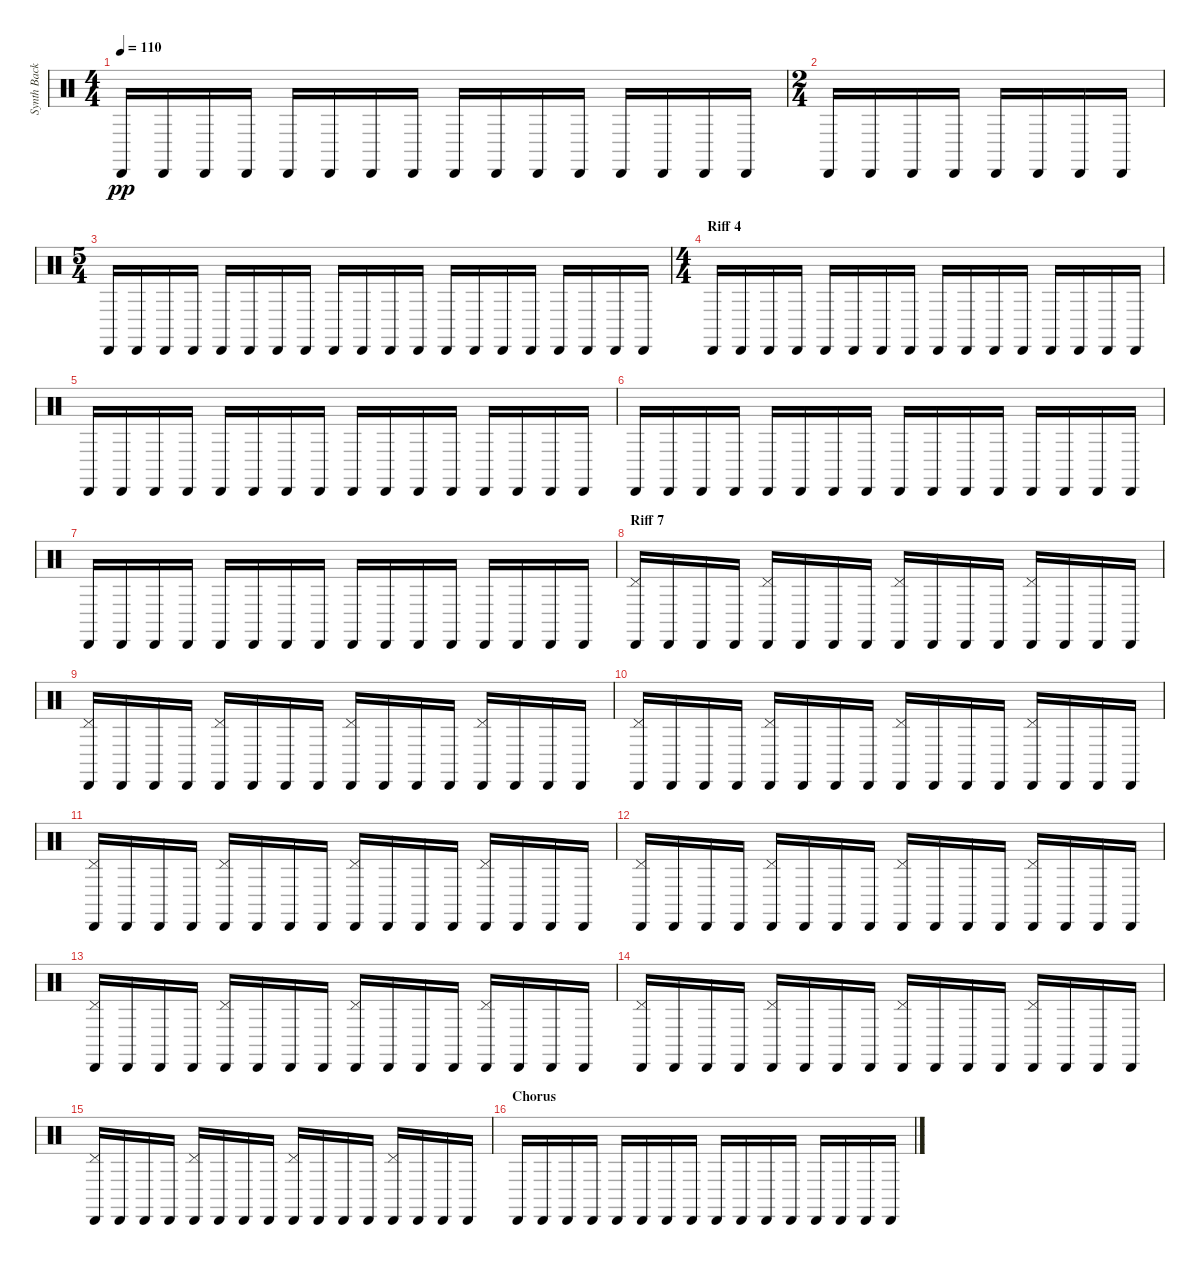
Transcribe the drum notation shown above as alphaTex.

\track ("Synth Background Rhythm" "Synth Back") {instrument percussion}
\staff {score}
\articulation defaults
\ts (4 4)
\tempo 110
\clef neutral
\ks c "Cabasa (hit)".16{dy pp} "Cabasa (hit)".16 "Cabasa (hit)".16 "Cabasa (hit)".16 "Cabasa (hit)".16 "Cabasa (hit)".16 "Cabasa (hit)".16 "Cabasa (hit)".16 "Cabasa (hit)".16 "Cabasa (hit)".16 "Cabasa (hit)".16 "Cabasa (hit)".16 "Cabasa (hit)".16 "Cabasa (hit)".16 "Cabasa (hit)".16 "Cabasa (hit)".16
|
\ts (2 4)
"Cabasa (hit)".16 "Cabasa (hit)".16 "Cabasa (hit)".16 "Cabasa (hit)".16 "Cabasa (hit)".16 "Cabasa (hit)".16 "Cabasa (hit)".16 "Cabasa (hit)".16 |
\ts (5 4)
"Cabasa (hit)".16 "Cabasa (hit)".16 "Cabasa (hit)".16 "Cabasa (hit)".16 "Cabasa (hit)".16 "Cabasa (hit)".16 "Cabasa (hit)".16 "Cabasa (hit)".16 "Cabasa (hit)".16 "Cabasa (hit)".16 "Cabasa (hit)".16 "Cabasa (hit)".16 "Cabasa (hit)".16 "Cabasa (hit)".16 "Cabasa (hit)".16 "Cabasa (hit)".16 "Cabasa (hit)".16 "Cabasa (hit)".16 "Cabasa (hit)".16 "Cabasa (hit)".16 |
\ts (4 4)
\section ("" "Riff 4")
"Cabasa (hit)".16 "Cabasa (hit)".16 "Cabasa (hit)".16 "Cabasa (hit)".16 "Cabasa (hit)".16 "Cabasa (hit)".16 "Cabasa (hit)".16 "Cabasa (hit)".16 "Cabasa (hit)".16 "Cabasa (hit)".16 "Cabasa (hit)".16 "Cabasa (hit)".16 "Cabasa (hit)".16 "Cabasa (hit)".16 "Cabasa (hit)".16 "Cabasa (hit)".16 |
"Cabasa (hit)".16 "Cabasa (hit)".16 "Cabasa (hit)".16 "Cabasa (hit)".16 "Cabasa (hit)".16 "Cabasa (hit)".16 "Cabasa (hit)".16 "Cabasa (hit)".16 "Cabasa (hit)".16 "Cabasa (hit)".16 "Cabasa (hit)".16 "Cabasa (hit)".16 "Cabasa (hit)".16 "Cabasa (hit)".16 "Cabasa (hit)".16 "Cabasa (hit)".16 |
"Cabasa (hit)".16 "Cabasa (hit)".16 "Cabasa (hit)".16 "Cabasa (hit)".16 "Cabasa (hit)".16 "Cabasa (hit)".16 "Cabasa (hit)".16 "Cabasa (hit)".16 "Cabasa (hit)".16 "Cabasa (hit)".16 "Cabasa (hit)".16 "Cabasa (hit)".16 "Cabasa (hit)".16 "Cabasa (hit)".16 "Cabasa (hit)".16 "Cabasa (hit)".16 |
"Cabasa (hit)".16 "Cabasa (hit)".16 "Cabasa (hit)".16 "Cabasa (hit)".16 "Cabasa (hit)".16 "Cabasa (hit)".16 "Cabasa (hit)".16 "Cabasa (hit)".16 "Cabasa (hit)".16 "Cabasa (hit)".16 "Cabasa (hit)".16 "Cabasa (hit)".16 "Cabasa (hit)".16 "Cabasa (hit)".16 "Cabasa (hit)".16 "Cabasa (hit)".16 |
\section ("" "Riff 7")
("Pedal Hi-Hat (hit)" "Cabasa (hit)").16 "Cabasa (hit)".16 "Cabasa (hit)".16 "Cabasa (hit)".16 ("Pedal Hi-Hat (hit)" "Cabasa (hit)").16 "Cabasa (hit)".16 "Cabasa (hit)".16 "Cabasa (hit)".16 ("Pedal Hi-Hat (hit)" "Cabasa (hit)").16 "Cabasa (hit)".16 "Cabasa (hit)".16 "Cabasa (hit)".16 ("Pedal Hi-Hat (hit)" "Cabasa (hit)").16 "Cabasa (hit)".16 "Cabasa (hit)".16 "Cabasa (hit)".16 |
("Pedal Hi-Hat (hit)" "Cabasa (hit)").16 "Cabasa (hit)".16 "Cabasa (hit)".16 "Cabasa (hit)".16 ("Pedal Hi-Hat (hit)" "Cabasa (hit)").16 "Cabasa (hit)".16 "Cabasa (hit)".16 "Cabasa (hit)".16 ("Pedal Hi-Hat (hit)" "Cabasa (hit)").16 "Cabasa (hit)".16 "Cabasa (hit)".16 "Cabasa (hit)".16 ("Pedal Hi-Hat (hit)" "Cabasa (hit)").16 "Cabasa (hit)".16 "Cabasa (hit)".16 "Cabasa (hit)".16 |
("Pedal Hi-Hat (hit)" "Cabasa (hit)").16 "Cabasa (hit)".16 "Cabasa (hit)".16 "Cabasa (hit)".16 ("Pedal Hi-Hat (hit)" "Cabasa (hit)").16 "Cabasa (hit)".16 "Cabasa (hit)".16 "Cabasa (hit)".16 ("Pedal Hi-Hat (hit)" "Cabasa (hit)").16 "Cabasa (hit)".16 "Cabasa (hit)".16 "Cabasa (hit)".16 ("Pedal Hi-Hat (hit)" "Cabasa (hit)").16 "Cabasa (hit)".16 "Cabasa (hit)".16 "Cabasa (hit)".16 |
("Pedal Hi-Hat (hit)" "Cabasa (hit)").16 "Cabasa (hit)".16 "Cabasa (hit)".16 "Cabasa (hit)".16 ("Pedal Hi-Hat (hit)" "Cabasa (hit)").16 "Cabasa (hit)".16 "Cabasa (hit)".16 "Cabasa (hit)".16 ("Pedal Hi-Hat (hit)" "Cabasa (hit)").16 "Cabasa (hit)".16 "Cabasa (hit)".16 "Cabasa (hit)".16 ("Pedal Hi-Hat (hit)" "Cabasa (hit)").16 "Cabasa (hit)".16 "Cabasa (hit)".16 "Cabasa (hit)".16 |
("Pedal Hi-Hat (hit)" "Cabasa (hit)").16 "Cabasa (hit)".16 "Cabasa (hit)".16 "Cabasa (hit)".16 ("Pedal Hi-Hat (hit)" "Cabasa (hit)").16 "Cabasa (hit)".16 "Cabasa (hit)".16 "Cabasa (hit)".16 ("Pedal Hi-Hat (hit)" "Cabasa (hit)").16 "Cabasa (hit)".16 "Cabasa (hit)".16 "Cabasa (hit)".16 ("Pedal Hi-Hat (hit)" "Cabasa (hit)").16 "Cabasa (hit)".16 "Cabasa (hit)".16 "Cabasa (hit)".16 |
("Pedal Hi-Hat (hit)" "Cabasa (hit)").16 "Cabasa (hit)".16 "Cabasa (hit)".16 "Cabasa (hit)".16 ("Pedal Hi-Hat (hit)" "Cabasa (hit)").16 "Cabasa (hit)".16 "Cabasa (hit)".16 "Cabasa (hit)".16 ("Pedal Hi-Hat (hit)" "Cabasa (hit)").16 "Cabasa (hit)".16 "Cabasa (hit)".16 "Cabasa (hit)".16 ("Pedal Hi-Hat (hit)" "Cabasa (hit)").16 "Cabasa (hit)".16 "Cabasa (hit)".16 "Cabasa (hit)".16 |
("Pedal Hi-Hat (hit)" "Cabasa (hit)").16 "Cabasa (hit)".16 "Cabasa (hit)".16 "Cabasa (hit)".16 ("Pedal Hi-Hat (hit)" "Cabasa (hit)").16 "Cabasa (hit)".16 "Cabasa (hit)".16 "Cabasa (hit)".16 ("Pedal Hi-Hat (hit)" "Cabasa (hit)").16 "Cabasa (hit)".16 "Cabasa (hit)".16 "Cabasa (hit)".16 ("Pedal Hi-Hat (hit)" "Cabasa (hit)").16 "Cabasa (hit)".16 "Cabasa (hit)".16 "Cabasa (hit)".16 |
("Pedal Hi-Hat (hit)" "Cabasa (hit)").16 "Cabasa (hit)".16 "Cabasa (hit)".16 "Cabasa (hit)".16 ("Pedal Hi-Hat (hit)" "Cabasa (hit)").16 "Cabasa (hit)".16 "Cabasa (hit)".16 "Cabasa (hit)".16 ("Pedal Hi-Hat (hit)" "Cabasa (hit)").16 "Cabasa (hit)".16 "Cabasa (hit)".16 "Cabasa (hit)".16 ("Pedal Hi-Hat (hit)" "Cabasa (hit)").16 "Cabasa (hit)".16 "Cabasa (hit)".16 "Cabasa (hit)".16 |
\section ("" "Chorus")
"Cabasa (hit)".16 "Cabasa (hit)".16 "Cabasa (hit)".16 "Cabasa (hit)".16 "Cabasa (hit)".16 "Cabasa (hit)".16 "Cabasa (hit)".16 "Cabasa (hit)".16 "Cabasa (hit)".16 "Cabasa (hit)".16 "Cabasa (hit)".16 "Cabasa (hit)".16 "Cabasa (hit)".16 "Cabasa (hit)".16 "Cabasa (hit)".16 "Cabasa (hit)".16
